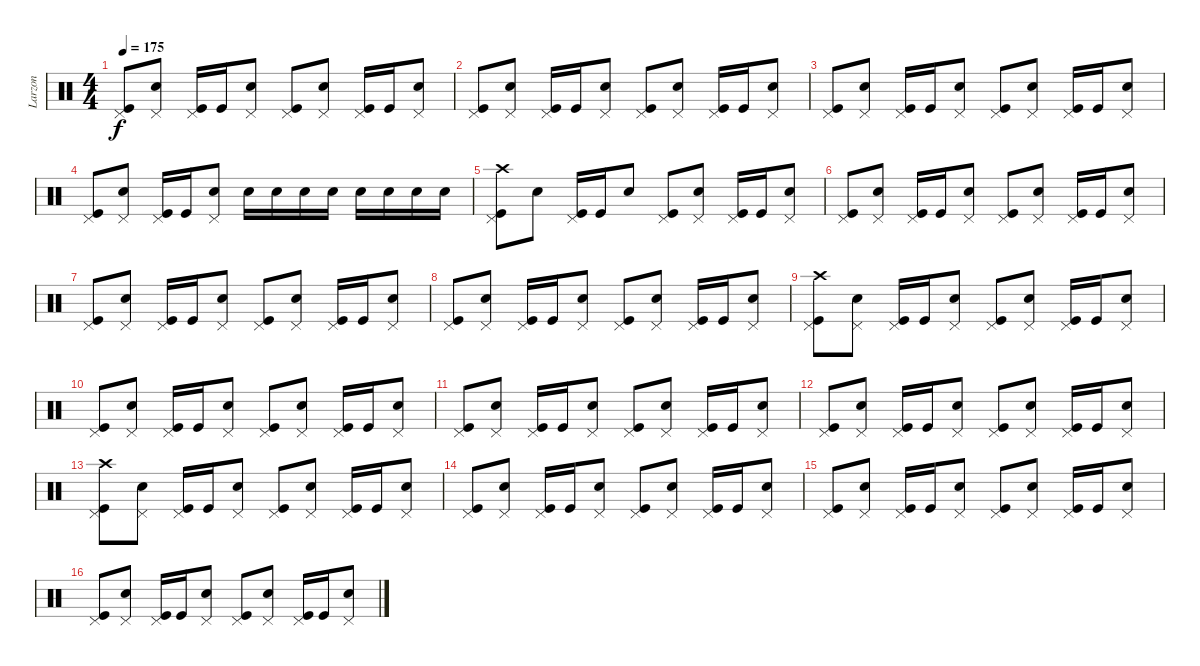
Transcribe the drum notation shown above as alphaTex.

\track ("Larzon" "Larzon") {instrument percussion}
\staff {score}
\articulation defaults
\ts (4 4)
\tempo 175
\clef neutral
\ks c
("Kick (hit)" "Pedal Hi-Hat (hit)").8{dy f} ("Snare (hit) 2" "Pedal Hi-Hat (hit)").8 ("Kick (hit)" "Pedal Hi-Hat (hit)").16 "Kick (hit)".16 ("Snare (hit) 2" "Pedal Hi-Hat (hit)").8 ("Kick (hit)" "Pedal Hi-Hat (hit)").8 ("Snare (hit) 2" "Pedal Hi-Hat (hit)").8 ("Kick (hit)" "Pedal Hi-Hat (hit)").16 "Kick (hit)".16 ("Snare (hit) 2" "Pedal Hi-Hat (hit)").8 |
("Kick (hit)" "Pedal Hi-Hat (hit)").8 ("Snare (hit) 2" "Pedal Hi-Hat (hit)").8 ("Kick (hit)" "Pedal Hi-Hat (hit)").16 "Kick (hit)".16 ("Snare (hit) 2" "Pedal Hi-Hat (hit)").8 ("Kick (hit)" "Pedal Hi-Hat (hit)").8 ("Snare (hit) 2" "Pedal Hi-Hat (hit)").8 ("Kick (hit)" "Pedal Hi-Hat (hit)").16 "Kick (hit)".16 ("Snare (hit) 2" "Pedal Hi-Hat (hit)").8 |
("Kick (hit)" "Pedal Hi-Hat (hit)").8 ("Snare (hit) 2" "Pedal Hi-Hat (hit)").8 ("Kick (hit)" "Pedal Hi-Hat (hit)").16 "Kick (hit)".16 ("Snare (hit) 2" "Pedal Hi-Hat (hit)").8 ("Kick (hit)" "Pedal Hi-Hat (hit)").8 ("Snare (hit) 2" "Pedal Hi-Hat (hit)").8 ("Kick (hit)" "Pedal Hi-Hat (hit)").16 "Kick (hit)".16 ("Snare (hit) 2" "Pedal Hi-Hat (hit)").8 |
("Kick (hit)" "Pedal Hi-Hat (hit)").8 ("Snare (hit) 2" "Pedal Hi-Hat (hit)").8 ("Kick (hit)" "Pedal Hi-Hat (hit)").16 "Kick (hit)".16 ("Snare (hit) 2" "Pedal Hi-Hat (hit)").8 "Snare (hit) 2".16 "Snare (hit) 2".16 "Snare (hit) 2".16 "Snare (hit) 2".16 "Snare (hit) 2".16 "Snare (hit) 2".16 "Snare (hit) 2".16 "Snare (hit) 2".16 |
("Kick (hit)" "Crash high (hit)" "Pedal Hi-Hat (hit)").8 "Snare (hit) 2".8 ("Kick (hit)" "Pedal Hi-Hat (hit)").16 "Kick (hit)".16 "Snare (hit) 2".8 ("Kick (hit)" "Pedal Hi-Hat (hit)").8 ("Snare (hit) 2" "Pedal Hi-Hat (hit)").8 ("Kick (hit)" "Pedal Hi-Hat (hit)").16 "Kick (hit)".16 ("Snare (hit) 2" "Pedal Hi-Hat (hit)").8 |
("Kick (hit)" "Pedal Hi-Hat (hit)").8 ("Snare (hit) 2" "Pedal Hi-Hat (hit)").8 ("Kick (hit)" "Pedal Hi-Hat (hit)").16 "Kick (hit)".16 ("Snare (hit) 2" "Pedal Hi-Hat (hit)").8 ("Kick (hit)" "Pedal Hi-Hat (hit)").8 ("Snare (hit) 2" "Pedal Hi-Hat (hit)").8 ("Kick (hit)" "Pedal Hi-Hat (hit)").16 "Kick (hit)".16 ("Snare (hit) 2" "Pedal Hi-Hat (hit)").8 |
("Kick (hit)" "Pedal Hi-Hat (hit)").8 ("Snare (hit) 2" "Pedal Hi-Hat (hit)").8 ("Kick (hit)" "Pedal Hi-Hat (hit)").16 "Kick (hit)".16 ("Snare (hit) 2" "Pedal Hi-Hat (hit)").8 ("Kick (hit)" "Pedal Hi-Hat (hit)").8 ("Snare (hit) 2" "Pedal Hi-Hat (hit)").8 ("Kick (hit)" "Pedal Hi-Hat (hit)").16 "Kick (hit)".16 ("Snare (hit) 2" "Pedal Hi-Hat (hit)").8 |
("Kick (hit)" "Pedal Hi-Hat (hit)").8 ("Snare (hit) 2" "Pedal Hi-Hat (hit)").8 ("Kick (hit)" "Pedal Hi-Hat (hit)").16 "Kick (hit)".16 ("Snare (hit) 2" "Pedal Hi-Hat (hit)").8 ("Kick (hit)" "Pedal Hi-Hat (hit)").8 ("Snare (hit) 2" "Pedal Hi-Hat (hit)").8 ("Kick (hit)" "Pedal Hi-Hat (hit)").16 "Kick (hit)".16 ("Snare (hit) 2" "Pedal Hi-Hat (hit)").8 |
("Crash high (hit)" "Kick (hit)" "Pedal Hi-Hat (hit)").8 ("Snare (hit) 2" "Pedal Hi-Hat (hit)").8 ("Kick (hit)" "Pedal Hi-Hat (hit)").16 "Kick (hit)".16 ("Snare (hit) 2" "Pedal Hi-Hat (hit)").8 ("Kick (hit)" "Pedal Hi-Hat (hit)").8 ("Snare (hit) 2" "Pedal Hi-Hat (hit)").8 ("Kick (hit)" "Pedal Hi-Hat (hit)").16 "Kick (hit)".16 ("Snare (hit) 2" "Pedal Hi-Hat (hit)").8 |
("Kick (hit)" "Pedal Hi-Hat (hit)").8 ("Snare (hit) 2" "Pedal Hi-Hat (hit)").8 ("Kick (hit)" "Pedal Hi-Hat (hit)").16 "Kick (hit)".16 ("Snare (hit) 2" "Pedal Hi-Hat (hit)").8 ("Kick (hit)" "Pedal Hi-Hat (hit)").8 ("Snare (hit) 2" "Pedal Hi-Hat (hit)").8 ("Kick (hit)" "Pedal Hi-Hat (hit)").16 "Kick (hit)".16 ("Snare (hit) 2" "Pedal Hi-Hat (hit)").8 |
("Kick (hit)" "Pedal Hi-Hat (hit)").8 ("Snare (hit) 2" "Pedal Hi-Hat (hit)").8 ("Kick (hit)" "Pedal Hi-Hat (hit)").16 "Kick (hit)".16 ("Snare (hit) 2" "Pedal Hi-Hat (hit)").8 ("Kick (hit)" "Pedal Hi-Hat (hit)").8 ("Snare (hit) 2" "Pedal Hi-Hat (hit)").8 ("Kick (hit)" "Pedal Hi-Hat (hit)").16 "Kick (hit)".16 ("Snare (hit) 2" "Pedal Hi-Hat (hit)").8 |
("Kick (hit)" "Pedal Hi-Hat (hit)").8 ("Snare (hit) 2" "Pedal Hi-Hat (hit)").8 ("Kick (hit)" "Pedal Hi-Hat (hit)").16 "Kick (hit)".16 ("Snare (hit) 2" "Pedal Hi-Hat (hit)").8 ("Kick (hit)" "Pedal Hi-Hat (hit)").8 ("Snare (hit) 2" "Pedal Hi-Hat (hit)").8 ("Kick (hit)" "Pedal Hi-Hat (hit)").16 "Kick (hit)".16 ("Snare (hit) 2" "Pedal Hi-Hat (hit)").8 |
("Crash high (hit)" "Kick (hit)" "Pedal Hi-Hat (hit)").8 ("Snare (hit) 2" "Pedal Hi-Hat (hit)").8 ("Kick (hit)" "Pedal Hi-Hat (hit)").16 "Kick (hit)".16 ("Snare (hit) 2" "Pedal Hi-Hat (hit)").8 ("Kick (hit)" "Pedal Hi-Hat (hit)").8 ("Snare (hit) 2" "Pedal Hi-Hat (hit)").8 ("Kick (hit)" "Pedal Hi-Hat (hit)").16 "Kick (hit)".16 ("Snare (hit) 2" "Pedal Hi-Hat (hit)").8 |
("Kick (hit)" "Pedal Hi-Hat (hit)").8 ("Snare (hit) 2" "Pedal Hi-Hat (hit)").8 ("Kick (hit)" "Pedal Hi-Hat (hit)").16 "Kick (hit)".16 ("Snare (hit) 2" "Pedal Hi-Hat (hit)").8 ("Kick (hit)" "Pedal Hi-Hat (hit)").8 ("Snare (hit) 2" "Pedal Hi-Hat (hit)").8 ("Kick (hit)" "Pedal Hi-Hat (hit)").16 "Kick (hit)".16 ("Snare (hit) 2" "Pedal Hi-Hat (hit)").8 |
("Kick (hit)" "Pedal Hi-Hat (hit)").8 ("Snare (hit) 2" "Pedal Hi-Hat (hit)").8 ("Kick (hit)" "Pedal Hi-Hat (hit)").16 "Kick (hit)".16 ("Snare (hit) 2" "Pedal Hi-Hat (hit)").8 ("Kick (hit)" "Pedal Hi-Hat (hit)").8 ("Snare (hit) 2" "Pedal Hi-Hat (hit)").8 ("Kick (hit)" "Pedal Hi-Hat (hit)").16 "Kick (hit)".16 ("Snare (hit) 2" "Pedal Hi-Hat (hit)").8 |
("Kick (hit)" "Pedal Hi-Hat (hit)").8 ("Snare (hit) 2" "Pedal Hi-Hat (hit)").8 ("Kick (hit)" "Pedal Hi-Hat (hit)").16 "Kick (hit)".16 ("Snare (hit) 2" "Pedal Hi-Hat (hit)").8 ("Kick (hit)" "Pedal Hi-Hat (hit)").8 ("Snare (hit) 2" "Pedal Hi-Hat (hit)").8 ("Kick (hit)" "Pedal Hi-Hat (hit)").16 "Kick (hit)".16 ("Snare (hit) 2" "Pedal Hi-Hat (hit)").8
